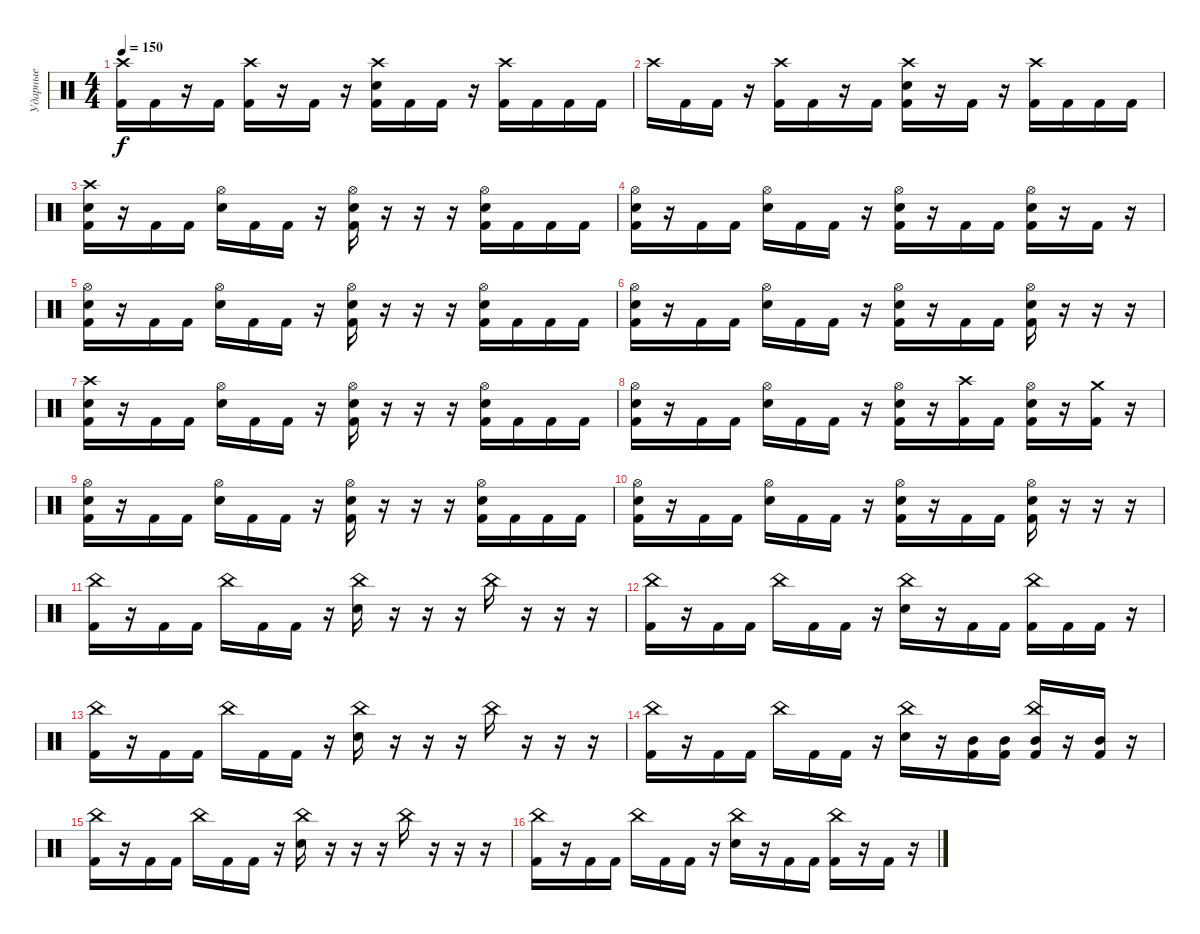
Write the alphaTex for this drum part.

\track ("Ударные" "Ударные") {instrument percussion}
\staff {score}
\articulation defaults
\ts (4 4)
\tempo 150
\clef neutral
\ks c
("Crash high (hit)" "Kick (hit) 2").16{dy f} "Kick (hit) 2".16 r.16 "Kick (hit) 2".16 ("Crash high (hit)" "Kick (hit) 2").16 r.16 "Kick (hit) 2".16 r.16 ("Crash high (hit)" "Electric Snare (hit)" "Kick (hit) 2").16 "Kick (hit) 2".16 "Kick (hit) 2".16 r.16 ("Crash high (hit)" "Kick (hit) 2").16 "Kick (hit) 2".16 "Kick (hit) 2".16 "Kick (hit) 2".16 |
"Crash high (hit)".16 "Kick (hit) 2".16 "Kick (hit) 2".16 r.16 ("Crash high (hit)" "Kick (hit) 2").16 "Kick (hit) 2".16 r.16 "Kick (hit) 2".16 ("Crash high (hit)" "Electric Snare (hit)" "Kick (hit) 2").16 r.16 "Kick (hit) 2".16 r.16 ("Crash high (hit)" "Kick (hit) 2").16 "Kick (hit) 2".16 "Kick (hit) 2".16 "Kick (hit) 2".16 |
("Crash high (hit)" "Electric Snare (hit)" "Kick (hit) 2").16 r.16 "Kick (hit) 2".16 "Kick (hit) 2".16 ("Hi-Hat (open)" "Electric Snare (hit)").16 "Kick (hit) 2".16 "Kick (hit) 2".16 r.16 ("Hi-Hat (open)" "Electric Snare (hit)" "Kick (hit) 2").16 r.16 r.16 r.16 ("Hi-Hat (open)" "Electric Snare (hit)" "Kick (hit) 2").16 "Kick (hit) 2".16 "Kick (hit) 2".16 "Kick (hit) 2".16 |
("Hi-Hat (open)" "Electric Snare (hit)" "Kick (hit) 2").16 r.16 "Kick (hit) 2".16 "Kick (hit) 2".16 ("Hi-Hat (open)" "Electric Snare (hit)").16 "Kick (hit) 2".16 "Kick (hit) 2".16 r.16 ("Hi-Hat (open)" "Electric Snare (hit)" "Kick (hit) 2").16 r.16 "Kick (hit) 2".16 "Kick (hit) 2".16 ("Hi-Hat (open)" "Electric Snare (hit)" "Kick (hit) 2").16 r.16 "Kick (hit) 2".16 r.16 |
("Hi-Hat (open)" "Electric Snare (hit)" "Kick (hit) 2").16 r.16 "Kick (hit) 2".16 "Kick (hit) 2".16 ("Hi-Hat (open)" "Electric Snare (hit)").16 "Kick (hit) 2".16 "Kick (hit) 2".16 r.16 ("Hi-Hat (open)" "Electric Snare (hit)" "Kick (hit) 2").16 r.16 r.16 r.16 ("Hi-Hat (open)" "Electric Snare (hit)" "Kick (hit) 2").16 "Kick (hit) 2".16 "Kick (hit) 2".16 "Kick (hit) 2".16 |
("Hi-Hat (open)" "Electric Snare (hit)" "Kick (hit) 2").16 r.16 "Kick (hit) 2".16 "Kick (hit) 2".16 ("Hi-Hat (open)" "Electric Snare (hit)").16 "Kick (hit) 2".16 "Kick (hit) 2".16 r.16 ("Hi-Hat (open)" "Electric Snare (hit)" "Kick (hit) 2").16 r.16 "Kick (hit) 2".16 "Kick (hit) 2".16 ("Hi-Hat (open)" "Electric Snare (hit)" "Kick (hit) 2").16 r.16 r.16 r.16 |
("Crash high (hit)" "Electric Snare (hit)" "Kick (hit) 2").16 r.16 "Kick (hit) 2".16 "Kick (hit) 2".16 ("Hi-Hat (open)" "Electric Snare (hit)").16 "Kick (hit) 2".16 "Kick (hit) 2".16 r.16 ("Hi-Hat (open)" "Electric Snare (hit)" "Kick (hit) 2").16 r.16 r.16 r.16 ("Hi-Hat (open)" "Electric Snare (hit)" "Kick (hit) 2").16 "Kick (hit) 2".16 "Kick (hit) 2".16 "Kick (hit) 2".16 |
("Hi-Hat (open)" "Electric Snare (hit)" "Kick (hit) 2").16 r.16 "Kick (hit) 2".16 "Kick (hit) 2".16 ("Hi-Hat (open)" "Electric Snare (hit)").16 "Kick (hit) 2".16 "Kick (hit) 2".16 r.16 ("Hi-Hat (open)" "Electric Snare (hit)" "Kick (hit) 2").16 r.16 ("Crash high (hit)" "Kick (hit) 2").16 "Kick (hit) 2".16 ("Hi-Hat (open)" "Electric Snare (hit)" "Kick (hit) 2").16 r.16 ("Crash medium (hit)" "Kick (hit) 2").16 r.16 |
("Hi-Hat (open)" "Electric Snare (hit)" "Kick (hit) 2").16 r.16 "Kick (hit) 2".16 "Kick (hit) 2".16 ("Hi-Hat (open)" "Electric Snare (hit)").16 "Kick (hit) 2".16 "Kick (hit) 2".16 r.16 ("Hi-Hat (open)" "Electric Snare (hit)" "Kick (hit) 2").16 r.16 r.16 r.16 ("Hi-Hat (open)" "Electric Snare (hit)" "Kick (hit) 2").16 "Kick (hit) 2".16 "Kick (hit) 2".16 "Kick (hit) 2".16 |
("Hi-Hat (open)" "Electric Snare (hit)" "Kick (hit) 2").16 r.16 "Kick (hit) 2".16 "Kick (hit) 2".16 ("Hi-Hat (open)" "Electric Snare (hit)").16 "Kick (hit) 2".16 "Kick (hit) 2".16 r.16 ("Hi-Hat (open)" "Electric Snare (hit)" "Kick (hit) 2").16 r.16 "Kick (hit) 2".16 "Kick (hit) 2".16 ("Hi-Hat (open)" "Electric Snare (hit)" "Kick (hit) 2").16 r.16 r.16 r.16 |
("China (hit)" "Kick (hit) 2").16 r.16 "Kick (hit) 2".16 "Kick (hit) 2".16 "China (hit)".16 "Kick (hit) 2".16 "Kick (hit) 2".16 r.16 ("China (hit)" "Electric Snare (hit)").16 r.16 r.16 r.16 "China (hit)".16 r.16 r.16 r.16 |
("China (hit)" "Kick (hit) 2").16 r.16 "Kick (hit) 2".16 "Kick (hit) 2".16 "China (hit)".16 "Kick (hit) 2".16 "Kick (hit) 2".16 r.16 ("China (hit)" "Electric Snare (hit)").16 r.16 "Kick (hit) 2".16 "Kick (hit) 2".16 ("China (hit)" "Kick (hit) 2").16 "Kick (hit) 2".16 "Kick (hit) 2".16 r.16 |
("China (hit)" "Kick (hit) 2").16 r.16 "Kick (hit) 2".16 "Kick (hit) 2".16 "China (hit)".16 "Kick (hit) 2".16 "Kick (hit) 2".16 r.16 ("China (hit)" "Electric Snare (hit)").16 r.16 r.16 r.16 "China (hit)".16 r.16 r.16 r.16 |
("China (hit)" "Kick (hit) 2").16 r.16 "Kick (hit) 2".16 "Kick (hit) 2".16 "China (hit)".16 "Kick (hit) 2".16 "Kick (hit) 2".16 r.16 ("China (hit)" "Electric Snare (hit)").16 r.16 ("Mid Tom (hit)" "Kick (hit) 2").16 ("Mid Tom (hit)" "Kick (hit) 2").16 ("China (hit)" "Mid Tom (hit)" "Kick (hit) 2").16 r.16 ("Mid Tom (hit)" "Kick (hit) 2").16 r.16 |
("China (hit)" "Kick (hit) 2").16 r.16 "Kick (hit) 2".16 "Kick (hit) 2".16 "China (hit)".16 "Kick (hit) 2".16 "Kick (hit) 2".16 r.16 ("China (hit)" "Electric Snare (hit)").16 r.16 r.16 r.16 "China (hit)".16 r.16 r.16 r.16 |
("China (hit)" "Kick (hit) 2").16 r.16 "Kick (hit) 2".16 "Kick (hit) 2".16 "China (hit)".16 "Kick (hit) 2".16 "Kick (hit) 2".16 r.16 ("China (hit)" "Electric Snare (hit)").16 r.16 "Kick (hit) 2".16 "Kick (hit) 2".16 ("China (hit)" "Kick (hit) 2").16 r.16 "Kick (hit) 2".16 r.16
